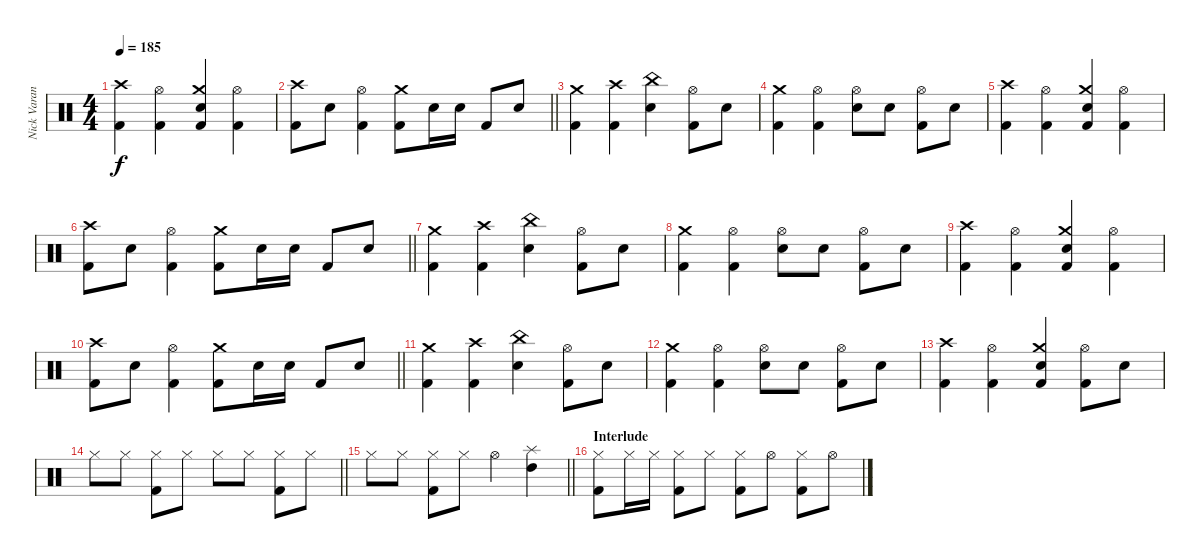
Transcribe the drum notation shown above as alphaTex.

\track ("Nick Varano (Drums)" "Nick Varan") {instrument percussion}
\staff {score}
\articulation defaults
\ts (4 4)
\tempo 185
\clef neutral
\ks c
("Crash high (hit)" "Kick (hit) 2").4{dy f} ("Hi-Hat (open)" "Kick (hit) 2").4 ("Crash medium (hit)" "Electric Snare (hit)" "Kick (hit) 2").4 ("Hi-Hat (open)" "Kick (hit) 2").4 |
\barLineRight lightlight
("Crash high (hit)" "Kick (hit) 2").8 "Electric Snare (hit)".8 ("Hi-Hat (open)" "Kick (hit) 2").4 ("Crash medium (hit)" "Kick (hit) 2").8 "Electric Snare (hit)".16 "Electric Snare (hit)".16 "Kick (hit) 2".8 "Electric Snare (hit)".8 |
("Crash medium (hit)" "Kick (hit) 2").4 ("Crash high (hit)" "Kick (hit) 2").4 ("China (hit)" "Electric Snare (hit)").4 ("Hi-Hat (open)" "Kick (hit) 2").8 "Electric Snare (hit)".8 |
("Crash medium (hit)" "Kick (hit) 2").4 ("Hi-Hat (open)" "Kick (hit) 2").4 ("Hi-Hat (open)" "Electric Snare (hit)").8 "Electric Snare (hit)".8 ("Hi-Hat (open)" "Kick (hit) 2").8 "Electric Snare (hit)".8 |
("Crash high (hit)" "Kick (hit) 2").4 ("Hi-Hat (open)" "Kick (hit) 2").4 ("Crash medium (hit)" "Electric Snare (hit)" "Kick (hit) 2").4 ("Hi-Hat (open)" "Kick (hit) 2").4 |
\barLineRight lightlight
("Crash high (hit)" "Kick (hit) 2").8 "Electric Snare (hit)".8 ("Hi-Hat (open)" "Kick (hit) 2").4 ("Crash medium (hit)" "Kick (hit) 2").8 "Electric Snare (hit)".16 "Electric Snare (hit)".16 "Kick (hit) 2".8 "Electric Snare (hit)".8 |
("Crash medium (hit)" "Kick (hit) 2").4 ("Crash high (hit)" "Kick (hit) 2").4 ("China (hit)" "Electric Snare (hit)").4 ("Hi-Hat (open)" "Kick (hit) 2").8 "Electric Snare (hit)".8 |
("Crash medium (hit)" "Kick (hit) 2").4 ("Hi-Hat (open)" "Kick (hit) 2").4 ("Hi-Hat (open)" "Electric Snare (hit)").8 "Electric Snare (hit)".8 ("Hi-Hat (open)" "Kick (hit) 2").8 "Electric Snare (hit)".8 |
("Crash high (hit)" "Kick (hit) 2").4 ("Hi-Hat (open)" "Kick (hit) 2").4 ("Crash medium (hit)" "Electric Snare (hit)" "Kick (hit) 2").4 ("Hi-Hat (open)" "Kick (hit) 2").4 |
\barLineRight lightlight
("Crash high (hit)" "Kick (hit) 2").8 "Electric Snare (hit)".8 ("Hi-Hat (open)" "Kick (hit) 2").4 ("Crash medium (hit)" "Kick (hit) 2").8 "Electric Snare (hit)".16 "Electric Snare (hit)".16 "Kick (hit) 2".8 "Electric Snare (hit)".8 |
("Crash medium (hit)" "Kick (hit) 2").4 ("Crash high (hit)" "Kick (hit) 2").4 ("China (hit)" "Electric Snare (hit)").4 ("Hi-Hat (open)" "Kick (hit) 2").8 "Electric Snare (hit)".8 |
("Crash medium (hit)" "Kick (hit) 2").4 ("Hi-Hat (open)" "Kick (hit) 2").4 ("Hi-Hat (open)" "Electric Snare (hit)").8 "Electric Snare (hit)".8 ("Hi-Hat (open)" "Kick (hit) 2").8 "Electric Snare (hit)".8 |
("Crash high (hit)" "Kick (hit) 2").4 ("Hi-Hat (open)" "Kick (hit) 2").4 ("Crash medium (hit)" "Electric Snare (hit)" "Kick (hit) 2").4 ("Hi-Hat (open)" "Kick (hit) 2").8 "Electric Snare (hit)".8 |
\barLineRight lightlight "Hi-Hat (closed)".8 "Hi-Hat (closed)".8
("Hi-Hat (closed)" "Kick (hit) 2").8 "Hi-Hat (closed)".8 "Hi-Hat (closed)".8 "Hi-Hat (closed)".8 ("Hi-Hat (closed)" "Kick (hit) 2").8 "Hi-Hat (closed)".8 |
\barLineRight lightlight "Hi-Hat (closed)".8 "Hi-Hat (closed)".8
("Hi-Hat (closed)" "Kick (hit) 2").8 "Hi-Hat (closed)".8 "Hi-Hat (open)".4 ("Splash (hit)" "High Tom (hit)").4 |
\section ("" "Interlude")
("Hi-Hat (closed)" "Kick (hit) 2").8 "Hi-Hat (closed)".16 "Hi-Hat (closed)".16 ("Hi-Hat (closed)" "Kick (hit) 2").8 "Hi-Hat (closed)".8 ("Hi-Hat (closed)" "Kick (hit) 2").8 "Hi-Hat (open)".8 ("Hi-Hat (closed)" "Kick (hit) 2").8 "Hi-Hat (open)".8
